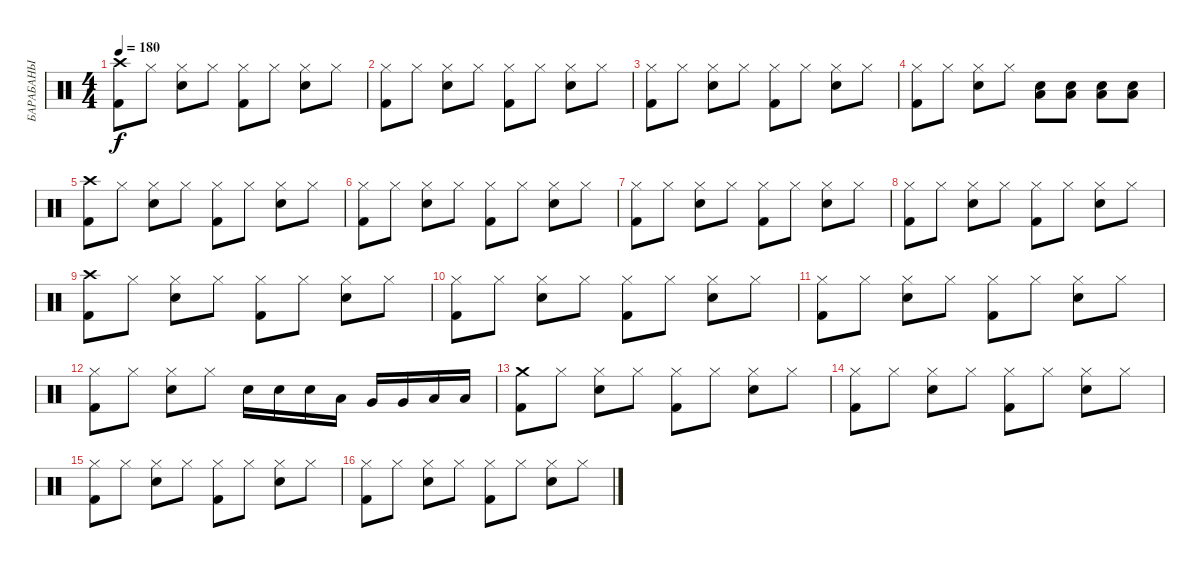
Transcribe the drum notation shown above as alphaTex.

\track ("БАРАБАНЫ" "БАРАБАНЫ") {instrument percussion}
\staff {score}
\articulation defaults
\ts (4 4)
\tempo 180
\clef neutral
\ks c
("Crash high (hit)" "Kick (hit) 2").8{dy f} "Hi-Hat (closed)".8 ("Hi-Hat (closed)" "Electric Snare (hit)").8 "Hi-Hat (closed)".8 ("Hi-Hat (closed)" "Kick (hit) 2").8 "Hi-Hat (closed)".8 ("Hi-Hat (closed)" "Electric Snare (hit)").8 "Hi-Hat (closed)".8 |
("Hi-Hat (closed)" "Kick (hit) 2").8 "Hi-Hat (closed)".8 ("Hi-Hat (closed)" "Electric Snare (hit)").8 "Hi-Hat (closed)".8 ("Hi-Hat (closed)" "Kick (hit) 2").8 "Hi-Hat (closed)".8 ("Hi-Hat (closed)" "Electric Snare (hit)").8 "Hi-Hat (closed)".8 |
("Hi-Hat (closed)" "Kick (hit) 2").8 "Hi-Hat (closed)".8 ("Hi-Hat (closed)" "Electric Snare (hit)").8 "Hi-Hat (closed)".8 ("Hi-Hat (closed)" "Kick (hit) 2").8 "Hi-Hat (closed)".8 ("Hi-Hat (closed)" "Electric Snare (hit)").8 "Hi-Hat (closed)".8 |
("Hi-Hat (closed)" "Kick (hit) 2").8 "Hi-Hat (closed)".8 ("Hi-Hat (closed)" "Electric Snare (hit)").8 "Hi-Hat (closed)".8 ("Low Floor Tom (hit)" "Electric Snare (hit)").8 ("Low Floor Tom (hit)" "Electric Snare (hit)").8 ("Low Floor Tom (hit)" "Electric Snare (hit)").8 ("Low Floor Tom (hit)" "Electric Snare (hit)").8 |
("Crash high (hit)" "Kick (hit) 2").8 "Hi-Hat (closed)".8 ("Hi-Hat (closed)" "Electric Snare (hit)").8 "Hi-Hat (closed)".8 ("Hi-Hat (closed)" "Kick (hit) 2").8 "Hi-Hat (closed)".8 ("Hi-Hat (closed)" "Electric Snare (hit)").8 "Hi-Hat (closed)".8 |
("Hi-Hat (closed)" "Kick (hit) 2").8 "Hi-Hat (closed)".8 ("Hi-Hat (closed)" "Electric Snare (hit)").8 "Hi-Hat (closed)".8 ("Hi-Hat (closed)" "Kick (hit) 2").8 "Hi-Hat (closed)".8 ("Hi-Hat (closed)" "Electric Snare (hit)").8 "Hi-Hat (closed)".8 |
("Hi-Hat (closed)" "Kick (hit) 2").8 "Hi-Hat (closed)".8 ("Hi-Hat (closed)" "Electric Snare (hit)").8 "Hi-Hat (closed)".8 ("Hi-Hat (closed)" "Kick (hit) 2").8 "Hi-Hat (closed)".8 ("Hi-Hat (closed)" "Electric Snare (hit)").8 "Hi-Hat (closed)".8 |
("Hi-Hat (closed)" "Kick (hit) 2").8 "Hi-Hat (closed)".8 ("Hi-Hat (closed)" "Electric Snare (hit)").8 "Hi-Hat (closed)".8 ("Hi-Hat (closed)" "Kick (hit) 2").8 "Hi-Hat (closed)".8 ("Hi-Hat (closed)" "Electric Snare (hit)").8 "Hi-Hat (closed)".8 |
("Crash high (hit)" "Kick (hit) 2").8 "Hi-Hat (closed)".8 ("Hi-Hat (closed)" "Electric Snare (hit)").8 "Hi-Hat (closed)".8 ("Hi-Hat (closed)" "Kick (hit) 2").8 "Hi-Hat (closed)".8 ("Hi-Hat (closed)" "Electric Snare (hit)").8 "Hi-Hat (closed)".8 |
("Hi-Hat (closed)" "Kick (hit) 2").8 "Hi-Hat (closed)".8 ("Hi-Hat (closed)" "Electric Snare (hit)").8 "Hi-Hat (closed)".8 ("Hi-Hat (closed)" "Kick (hit) 2").8 "Hi-Hat (closed)".8 ("Hi-Hat (closed)" "Electric Snare (hit)").8 "Hi-Hat (closed)".8 |
("Hi-Hat (closed)" "Kick (hit) 2").8 "Hi-Hat (closed)".8 ("Hi-Hat (closed)" "Electric Snare (hit)").8 "Hi-Hat (closed)".8 ("Hi-Hat (closed)" "Kick (hit) 2").8 "Hi-Hat (closed)".8 ("Hi-Hat (closed)" "Electric Snare (hit)").8 "Hi-Hat (closed)".8 |
("Hi-Hat (closed)" "Kick (hit) 2").8 "Hi-Hat (closed)".8 ("Hi-Hat (closed)" "Electric Snare (hit)").8 "Hi-Hat (closed)".8 "Electric Snare (hit)".16 "Electric Snare (hit)".16 "Electric Snare (hit)".16 "Low Tom (hit)".16 "Very Low Tom (hit)".16 "Very Low Tom (hit)".16 "Low Floor Tom (hit)".16 "Low Floor Tom (hit)".16 |
("Crash medium (hit)" "Kick (hit) 2").8 "Hi-Hat (closed)".8 ("Hi-Hat (closed)" "Electric Snare (hit)").8 "Hi-Hat (closed)".8 ("Hi-Hat (closed)" "Kick (hit) 2").8 "Hi-Hat (closed)".8 ("Hi-Hat (closed)" "Electric Snare (hit)").8 "Hi-Hat (closed)".8 |
("Hi-Hat (closed)" "Kick (hit) 2").8 "Hi-Hat (closed)".8 ("Hi-Hat (closed)" "Electric Snare (hit)").8 "Hi-Hat (closed)".8 ("Hi-Hat (closed)" "Kick (hit) 2").8 "Hi-Hat (closed)".8 ("Hi-Hat (closed)" "Electric Snare (hit)").8 "Hi-Hat (closed)".8 |
("Hi-Hat (closed)" "Kick (hit) 2").8 "Hi-Hat (closed)".8 ("Hi-Hat (closed)" "Electric Snare (hit)").8 "Hi-Hat (closed)".8 ("Hi-Hat (closed)" "Kick (hit) 2").8 "Hi-Hat (closed)".8 ("Hi-Hat (closed)" "Electric Snare (hit)").8 "Hi-Hat (closed)".8 |
("Hi-Hat (closed)" "Kick (hit) 2").8 "Hi-Hat (closed)".8 ("Hi-Hat (closed)" "Electric Snare (hit)").8 "Hi-Hat (closed)".8 ("Hi-Hat (closed)" "Kick (hit) 2").8 "Hi-Hat (closed)".8 ("Hi-Hat (closed)" "Electric Snare (hit)").8 "Hi-Hat (closed)".8
